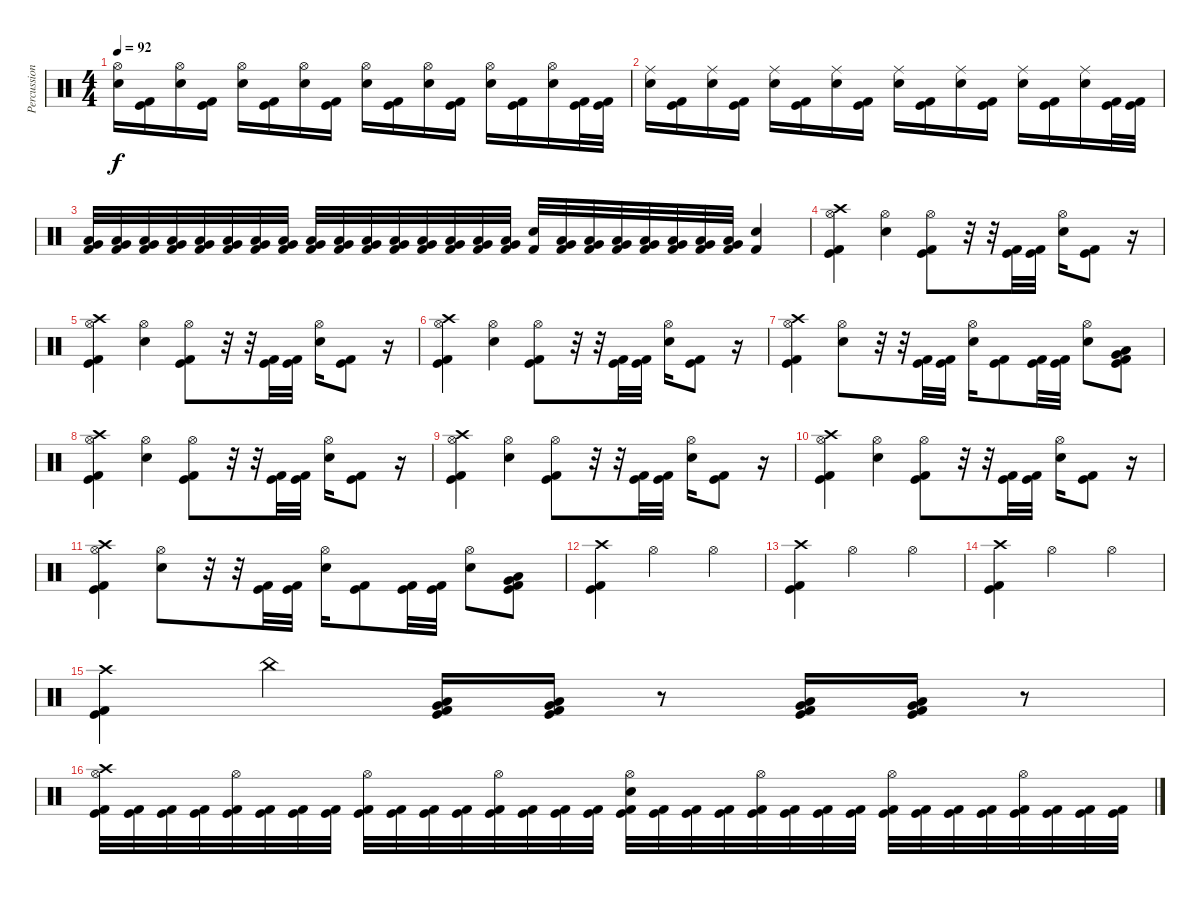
\track ("Percussion" "Percussion") {instrument percussion}
\staff {score}
\articulation defaults
\ts (4 4)
\tempo 92
\clef neutral
\ks c
("Electric Snare (hit)" "Hi-Hat (open)").16{dy f} ("Kick (hit) 2" "Kick (hit)").16 ("Electric Snare (hit)" "Hi-Hat (open)").16 ("Kick (hit) 2" "Kick (hit)").16 ("Electric Snare (hit)" "Hi-Hat (open)").16 ("Kick (hit) 2" "Kick (hit)").16 ("Electric Snare (hit)" "Hi-Hat (open)").16 ("Kick (hit) 2" "Kick (hit)").16 ("Electric Snare (hit)" "Hi-Hat (open)").16 ("Kick (hit) 2" "Kick (hit)").16 ("Electric Snare (hit)" "Hi-Hat (open)").16 ("Kick (hit) 2" "Kick (hit)").16 ("Electric Snare (hit)" "Hi-Hat (open)").16 ("Kick (hit) 2" "Kick (hit)").16 ("Electric Snare (hit)" "Hi-Hat (open)").16 ("Kick (hit) 2" "Kick (hit)").32 ("Kick (hit) 2" "Kick (hit)").32 |
("Electric Snare (hit)" "Ride (middle)").16 ("Kick (hit) 2" "Kick (hit)").16 ("Electric Snare (hit)" "Ride (middle)").16 ("Kick (hit) 2" "Kick (hit)").16 ("Electric Snare (hit)" "Ride (middle)").16 ("Kick (hit) 2" "Kick (hit)").16 ("Electric Snare (hit)" "Ride (middle)").16 ("Kick (hit) 2" "Kick (hit)").16 ("Electric Snare (hit)" "Ride (middle)").16 ("Kick (hit) 2" "Kick (hit)").16 ("Electric Snare (hit)" "Ride (middle)").16 ("Kick (hit) 2" "Kick (hit)").16 ("Electric Snare (hit)" "Ride (middle)").16 ("Kick (hit) 2" "Kick (hit)").16 ("Electric Snare (hit)" "Ride (middle)").16 ("Kick (hit) 2" "Kick (hit)").32 ("Kick (hit) 2" "Kick (hit)").32 |
("Low Tom (hit)" "Very Low Tom (hit)" "Kick (hit) 2").32 ("Low Tom (hit)" "Very Low Tom (hit)" "Kick (hit) 2").32 ("Low Tom (hit)" "Very Low Tom (hit)" "Kick (hit) 2").32 ("Low Tom (hit)" "Very Low Tom (hit)" "Kick (hit) 2").32 ("Low Tom (hit)" "Very Low Tom (hit)" "Kick (hit) 2").32 ("Low Tom (hit)" "Very Low Tom (hit)" "Kick (hit) 2").32 ("Low Tom (hit)" "Very Low Tom (hit)" "Kick (hit) 2").32 ("Low Tom (hit)" "Very Low Tom (hit)" "Kick (hit) 2").32 ("Low Tom (hit)" "Very Low Tom (hit)" "Kick (hit) 2").32 ("Low Tom (hit)" "Very Low Tom (hit)" "Kick (hit) 2").32 ("Low Tom (hit)" "Very Low Tom (hit)" "Kick (hit) 2").32 ("Low Tom (hit)" "Very Low Tom (hit)" "Kick (hit) 2").32 ("Low Tom (hit)" "Very Low Tom (hit)" "Kick (hit) 2").32 ("Low Tom (hit)" "Very Low Tom (hit)" "Kick (hit) 2").32 ("Low Tom (hit)" "Very Low Tom (hit)" "Kick (hit) 2").32 ("Low Tom (hit)" "Very Low Tom (hit)" "Kick (hit) 2").32 ("Electric Snare (hit)" "Kick (hit) 2").32 ("Low Tom (hit)" "Very Low Tom (hit)" "Kick (hit) 2").32 ("Low Tom (hit)" "Very Low Tom (hit)" "Kick (hit) 2").32 ("Low Tom (hit)" "Very Low Tom (hit)" "Kick (hit) 2").32 ("Low Tom (hit)" "Very Low Tom (hit)" "Kick (hit) 2").32 ("Low Tom (hit)" "Very Low Tom (hit)" "Kick (hit) 2").32 ("Low Tom (hit)" "Very Low Tom (hit)" "Kick (hit) 2").32 ("Low Tom (hit)" "Very Low Tom (hit)" "Kick (hit) 2").32 ("Electric Snare (hit)" "Kick (hit) 2").4 |
("Kick (hit) 2" "Hi-Hat (open)" "Crash high (hit)" "Kick (hit)").4 ("Electric Snare (hit)" "Hi-Hat (open)").4 ("Kick (hit) 2" "Hi-Hat (open)" "Kick (hit)").8 r.32 r.32 ("Kick (hit) 2" "Kick (hit)").32 ("Kick (hit) 2" "Kick (hit)").32 ("Electric Snare (hit)" "Hi-Hat (open)").16 ("Kick (hit) 2" "Kick (hit)").8 r.16 |
("Kick (hit) 2" "Hi-Hat (open)" "Crash high (hit)" "Kick (hit)").4 ("Electric Snare (hit)" "Hi-Hat (open)").4 ("Kick (hit) 2" "Hi-Hat (open)" "Kick (hit)").8 r.32 r.32 ("Kick (hit) 2" "Kick (hit)").32 ("Kick (hit) 2" "Kick (hit)").32 ("Electric Snare (hit)" "Hi-Hat (open)").16 ("Kick (hit) 2" "Kick (hit)").8 r.16 |
("Kick (hit) 2" "Hi-Hat (open)" "Crash high (hit)" "Kick (hit)").4 ("Electric Snare (hit)" "Hi-Hat (open)").4 ("Kick (hit) 2" "Hi-Hat (open)" "Kick (hit)").8 r.32 r.32 ("Kick (hit) 2" "Kick (hit)").32 ("Kick (hit) 2" "Kick (hit)").32 ("Electric Snare (hit)" "Hi-Hat (open)").16 ("Kick (hit) 2" "Kick (hit)").8 r.16 |
("Kick (hit) 2" "Hi-Hat (open)" "Crash high (hit)" "Kick (hit)").4 ("Electric Snare (hit)" "Hi-Hat (open)").8 r.32 r.32 ("Kick (hit) 2" "Kick (hit)").32 ("Kick (hit) 2" "Kick (hit)").32 ("Electric Snare (hit)" "Hi-Hat (open)").16 ("Kick (hit) 2" "Kick (hit)").8 ("Kick (hit) 2" "Kick (hit)").32 ("Kick (hit) 2" "Kick (hit)").32 ("Electric Snare (hit)" "Hi-Hat (open)").8 ("Kick (hit) 2" "Very Low Tom (hit)" "Low Floor Tom (hit)" "Kick (hit)").8 |
("Kick (hit) 2" "Hi-Hat (open)" "Crash high (hit)" "Kick (hit)").4 ("Electric Snare (hit)" "Hi-Hat (open)").4 ("Kick (hit) 2" "Hi-Hat (open)" "Kick (hit)").8 r.32 r.32 ("Kick (hit) 2" "Kick (hit)").32 ("Kick (hit) 2" "Kick (hit)").32 ("Electric Snare (hit)" "Hi-Hat (open)").16 ("Kick (hit) 2" "Kick (hit)").8 r.16 |
("Kick (hit) 2" "Hi-Hat (open)" "Crash high (hit)" "Kick (hit)").4 ("Electric Snare (hit)" "Hi-Hat (open)").4 ("Kick (hit) 2" "Hi-Hat (open)" "Kick (hit)").8 r.32 r.32 ("Kick (hit) 2" "Kick (hit)").32 ("Kick (hit) 2" "Kick (hit)").32 ("Electric Snare (hit)" "Hi-Hat (open)").16 ("Kick (hit) 2" "Kick (hit)").8 r.16 |
("Kick (hit) 2" "Hi-Hat (open)" "Crash high (hit)" "Kick (hit)").4 ("Electric Snare (hit)" "Hi-Hat (open)").4 ("Kick (hit) 2" "Hi-Hat (open)" "Kick (hit)").8 r.32 r.32 ("Kick (hit) 2" "Kick (hit)").32 ("Kick (hit) 2" "Kick (hit)").32 ("Electric Snare (hit)" "Hi-Hat (open)").16 ("Kick (hit) 2" "Kick (hit)").8 r.16 |
("Kick (hit) 2" "Hi-Hat (open)" "Crash high (hit)" "Kick (hit)").4 ("Electric Snare (hit)" "Hi-Hat (open)").8 r.32 r.32 ("Kick (hit) 2" "Kick (hit)").32 ("Kick (hit) 2" "Kick (hit)").32 ("Electric Snare (hit)" "Hi-Hat (open)").16 ("Kick (hit) 2" "Kick (hit)").8 ("Kick (hit) 2" "Kick (hit)").32 ("Kick (hit) 2" "Kick (hit)").32 ("Electric Snare (hit)" "Hi-Hat (open)").8 ("Kick (hit) 2" "Very Low Tom (hit)" "Low Floor Tom (hit)" "Kick (hit)").8 |
("Kick (hit) 2" "Kick (hit)" "Crash high (hit)").4 "Hi-Hat (open)".2 "Hi-Hat (open)".4 |
("Kick (hit) 2" "Kick (hit)" "Crash high (hit)").4 "Hi-Hat (open)".2 "Hi-Hat (open)".4 |
("Kick (hit) 2" "Kick (hit)" "Crash high (hit)").4 "Hi-Hat (open)".2 "Hi-Hat (open)".4 |
("Kick (hit) 2" "Kick (hit)" "Crash high (hit)").4 "China (hit)".4 ("Kick (hit) 2" "Kick (hit)" "Low Tom (hit)" "Very Low Tom (hit)").16 ("Kick (hit) 2" "Kick (hit)" "Low Tom (hit)" "Very Low Tom (hit)").16 r.8 ("Kick (hit) 2" "Kick (hit)" "Low Tom (hit)" "Very Low Tom (hit)").16 ("Kick (hit) 2" "Kick (hit)" "Low Tom (hit)" "Very Low Tom (hit)").16 r.8 |
("Kick (hit) 2" "Kick (hit)" "Hi-Hat (open)" "Crash high (hit)").32 ("Kick (hit) 2" "Kick (hit)").32 ("Kick (hit) 2" "Kick (hit)").32 ("Kick (hit) 2" "Kick (hit)").32 ("Kick (hit) 2" "Kick (hit)" "Hi-Hat (open)").32 ("Kick (hit) 2" "Kick (hit)").32 ("Kick (hit) 2" "Kick (hit)").32 ("Kick (hit) 2" "Kick (hit)").32 ("Kick (hit) 2" "Kick (hit)" "Hi-Hat (open)").32 ("Kick (hit) 2" "Kick (hit)").32 ("Kick (hit) 2" "Kick (hit)").32 ("Kick (hit) 2" "Kick (hit)").32 ("Kick (hit) 2" "Kick (hit)" "Hi-Hat (open)").32 ("Kick (hit) 2" "Kick (hit)").32 ("Kick (hit) 2" "Kick (hit)").32 ("Kick (hit) 2" "Kick (hit)").32 ("Kick (hit) 2" "Kick (hit)" "Hi-Hat (open)" "Electric Snare (hit)").32 ("Kick (hit) 2" "Kick (hit)").32 ("Kick (hit) 2" "Kick (hit)").32 ("Kick (hit) 2" "Kick (hit)").32 ("Kick (hit) 2" "Kick (hit)" "Hi-Hat (open)").32 ("Kick (hit) 2" "Kick (hit)").32 ("Kick (hit) 2" "Kick (hit)").32 ("Kick (hit) 2" "Kick (hit)").32 ("Kick (hit) 2" "Kick (hit)" "Hi-Hat (open)").32 ("Kick (hit) 2" "Kick (hit)").32 ("Kick (hit) 2" "Kick (hit)").32 ("Kick (hit) 2" "Kick (hit)").32 ("Kick (hit) 2" "Kick (hit)" "Hi-Hat (open)").32 ("Kick (hit) 2" "Kick (hit)").32 ("Kick (hit) 2" "Kick (hit)").32 ("Kick (hit) 2" "Kick (hit)").32
